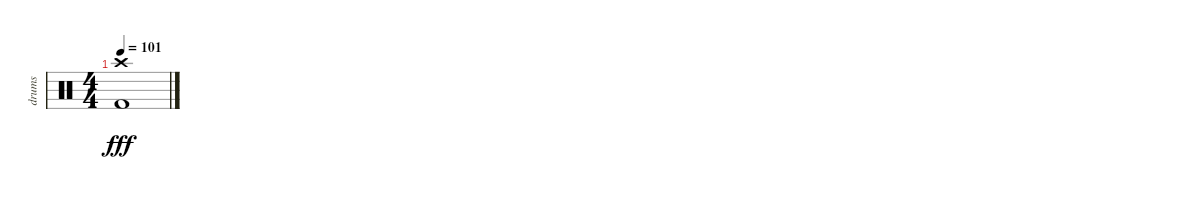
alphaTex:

\track ("drums" "drums") {instrument percussion}
\staff {score}
\articulation defaults
\ts (4 4)
\tempo 101
\clef neutral
\ks c
("Crash high (hit)" "Kick (hit) 2").1{dy fff}
